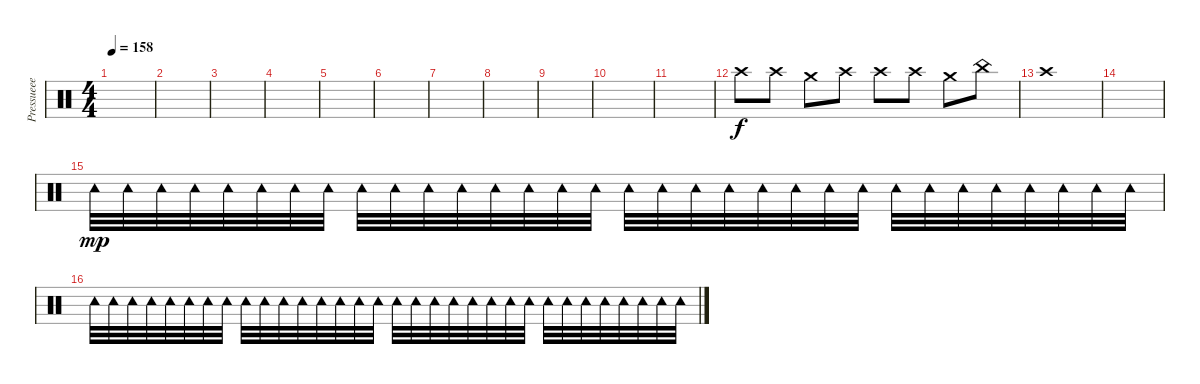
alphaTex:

\track ("Pressueee " "Pressueee ") {instrument percussion}
\staff {score}
\articulation defaults
\ts (4 4)
\tempo 158
\clef neutral
\ks c
|
|
|
|
|
|
|
|
|
|
|
"Crash high (hit)".8 "Crash high (hit)".8 "Crash medium (hit)".8 "Crash high (hit)".8 "Crash high (hit)".8 "Crash high (hit)".8 "Crash medium (hit)".8 "China (hit)".8 |
"Crash high (hit)".1 |
|
"Tambourine (hit)".32{dy mp} "Tambourine (hit)".32 "Tambourine (hit)".32 "Tambourine (hit)".32 "Tambourine (hit)".32 "Tambourine (hit)".32 "Tambourine (hit)".32 "Tambourine (hit)".32 "Tambourine (hit)".32 "Tambourine (hit)".32 "Tambourine (hit)".32 "Tambourine (hit)".32 "Tambourine (hit)".32 "Tambourine (hit)".32 "Tambourine (hit)".32 "Tambourine (hit)".32 "Tambourine (hit)".32 "Tambourine (hit)".32 "Tambourine (hit)".32 "Tambourine (hit)".32 "Tambourine (hit)".32 "Tambourine (hit)".32 "Tambourine (hit)".32 "Tambourine (hit)".32 "Tambourine (hit)".32 "Tambourine (hit)".32 "Tambourine (hit)".32 "Tambourine (hit)".32 "Tambourine (hit)".32 "Tambourine (hit)".32 "Tambourine (hit)".32 "Tambourine (hit)".32 |
"Tambourine (hit)".32 "Tambourine (hit)".32 "Tambourine (hit)".32 "Tambourine (hit)".32 "Tambourine (hit)".32 "Tambourine (hit)".32 "Tambourine (hit)".32 "Tambourine (hit)".32 "Tambourine (hit)".32 "Tambourine (hit)".32 "Tambourine (hit)".32 "Tambourine (hit)".32 "Tambourine (hit)".32 "Tambourine (hit)".32 "Tambourine (hit)".32 "Tambourine (hit)".32 "Tambourine (hit)".32 "Tambourine (hit)".32 "Tambourine (hit)".32 "Tambourine (hit)".32 "Tambourine (hit)".32 "Tambourine (hit)".32 "Tambourine (hit)".32 "Tambourine (hit)".32 "Tambourine (hit)".32 "Tambourine (hit)".32 "Tambourine (hit)".32 "Tambourine (hit)".32 "Tambourine (hit)".32 "Tambourine (hit)".32 "Tambourine (hit)".32 "Tambourine (hit)".32
